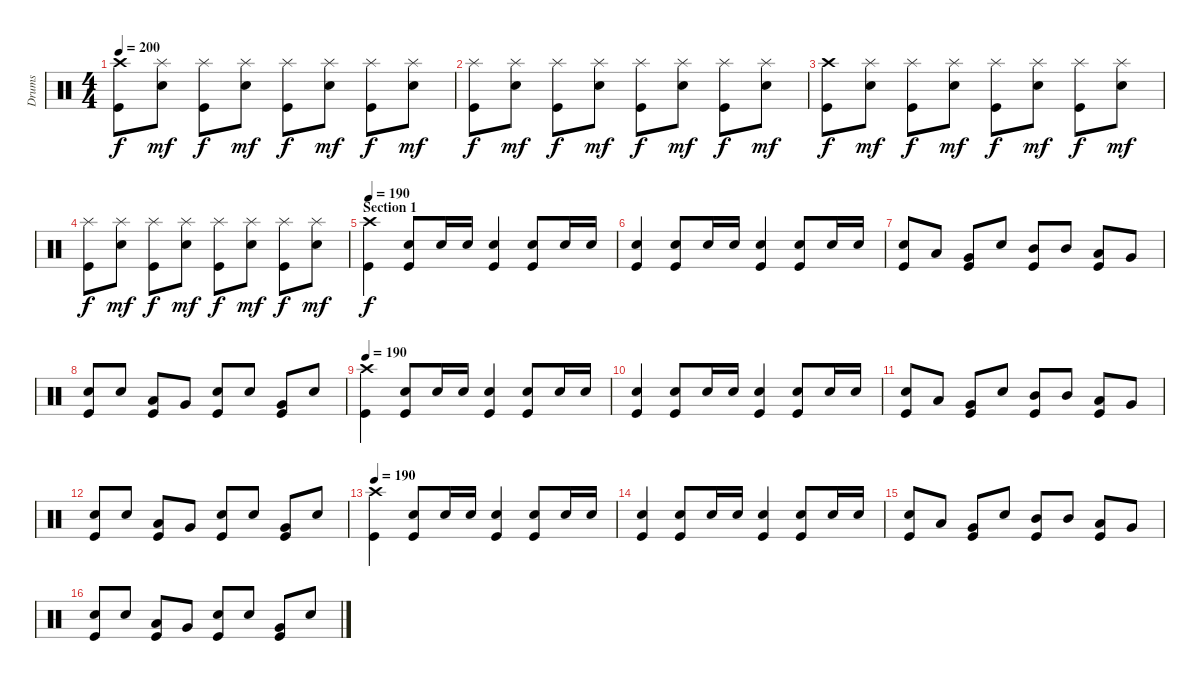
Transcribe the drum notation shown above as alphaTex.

\track ("Drums" "Drums") {instrument percussion}
\staff {score}
\articulation defaults
\ts (4 4)
\tempo 200
\clef neutral
\ks c
("Crash high (hit)" "Kick (hit)").8{dy f} ("Splash (hit)" "Electric Snare (hit)").8{dy mf} ("Splash (hit)" "Kick (hit)").8{dy f} ("Splash (hit)" "Electric Snare (hit)").8{dy mf} ("Splash (hit)" "Kick (hit)").8{dy f} ("Splash (hit)" "Electric Snare (hit)").8{dy mf} ("Splash (hit)" "Kick (hit)").8{dy f} ("Splash (hit)" "Electric Snare (hit)").8{dy mf} |
("Splash (hit)" "Kick (hit)").8{dy f} ("Splash (hit)" "Electric Snare (hit)").8{dy mf} ("Splash (hit)" "Kick (hit)").8{dy f} ("Splash (hit)" "Electric Snare (hit)").8{dy mf} ("Splash (hit)" "Kick (hit)").8{dy f} ("Splash (hit)" "Electric Snare (hit)").8{dy mf} ("Splash (hit)" "Kick (hit)").8{dy f} ("Splash (hit)" "Electric Snare (hit)").8{dy mf} |
("Crash high (hit)" "Kick (hit)").8{dy f} ("Splash (hit)" "Electric Snare (hit)").8{dy mf} ("Splash (hit)" "Kick (hit)").8{dy f} ("Splash (hit)" "Electric Snare (hit)").8{dy mf} ("Splash (hit)" "Kick (hit)").8{dy f} ("Splash (hit)" "Electric Snare (hit)").8{dy mf} ("Splash (hit)" "Kick (hit)").8{dy f} ("Splash (hit)" "Electric Snare (hit)").8{dy mf} |
("Splash (hit)" "Kick (hit)").8{dy f} ("Splash (hit)" "Electric Snare (hit)").8{dy mf} ("Splash (hit)" "Kick (hit)").8{dy f} ("Splash (hit)" "Electric Snare (hit)").8{dy mf} ("Splash (hit)" "Kick (hit)").8{dy f} ("Splash (hit)" "Electric Snare (hit)").8{dy mf} ("Splash (hit)" "Kick (hit)").8{dy f} ("Splash (hit)" "Electric Snare (hit)").8{dy mf} |
\section ("" "Section 1")
\tempo 190
("Crash high (hit)" "Kick (hit)").4{dy f} ("Electric Snare (hit)" "Kick (hit)").8 "Electric Snare (hit)".16 "Electric Snare (hit)".16 ("Electric Snare (hit)" "Kick (hit)").4 ("Electric Snare (hit)" "Kick (hit)").8 "Electric Snare (hit)".16 "Electric Snare (hit)".16 |
("Electric Snare (hit)" "Kick (hit)").4 ("Electric Snare (hit)" "Kick (hit)").8 "Electric Snare (hit)".16 "Electric Snare (hit)".16 ("Electric Snare (hit)" "Kick (hit)").4 ("Electric Snare (hit)" "Kick (hit)").8 "Electric Snare (hit)".16 "Electric Snare (hit)".16 |
("Electric Snare (hit)" "Kick (hit)").8 "Low Tom (hit)".8 ("Very Low Tom (hit)" "Kick (hit)").8 "Electric Snare (hit)".8 ("Mid Tom (hit)" "Kick (hit)").8 "Mid Tom (hit)".8 ("Low Tom (hit)" "Kick (hit)").8 "Very Low Tom (hit)".8 |
("Electric Snare (hit)" "Kick (hit)").8 "Electric Snare (hit)".8 ("Low Tom (hit)" "Kick (hit)").8 "Very Low Tom (hit)".8 ("Electric Snare (hit)" "Kick (hit)").8 "Electric Snare (hit)".8 ("Very Low Tom (hit)" "Kick (hit)").8 "Electric Snare (hit)".8 |
\tempo 190
("Crash high (hit)" "Kick (hit)").4 ("Electric Snare (hit)" "Kick (hit)").8 "Electric Snare (hit)".16 "Electric Snare (hit)".16 ("Electric Snare (hit)" "Kick (hit)").4 ("Electric Snare (hit)" "Kick (hit)").8 "Electric Snare (hit)".16 "Electric Snare (hit)".16 |
("Electric Snare (hit)" "Kick (hit)").4 ("Electric Snare (hit)" "Kick (hit)").8 "Electric Snare (hit)".16 "Electric Snare (hit)".16 ("Electric Snare (hit)" "Kick (hit)").4 ("Electric Snare (hit)" "Kick (hit)").8 "Electric Snare (hit)".16 "Electric Snare (hit)".16 |
("Electric Snare (hit)" "Kick (hit)").8 "Low Tom (hit)".8 ("Very Low Tom (hit)" "Kick (hit)").8 "Electric Snare (hit)".8 ("Mid Tom (hit)" "Kick (hit)").8 "Mid Tom (hit)".8 ("Low Tom (hit)" "Kick (hit)").8 "Very Low Tom (hit)".8 |
("Electric Snare (hit)" "Kick (hit)").8 "Electric Snare (hit)".8 ("Low Tom (hit)" "Kick (hit)").8 "Very Low Tom (hit)".8 ("Electric Snare (hit)" "Kick (hit)").8 "Electric Snare (hit)".8 ("Very Low Tom (hit)" "Kick (hit)").8 "Electric Snare (hit)".8 |
\tempo 190
("Crash high (hit)" "Kick (hit)").4 ("Electric Snare (hit)" "Kick (hit)").8 "Electric Snare (hit)".16 "Electric Snare (hit)".16 ("Electric Snare (hit)" "Kick (hit)").4 ("Electric Snare (hit)" "Kick (hit)").8 "Electric Snare (hit)".16 "Electric Snare (hit)".16 |
("Electric Snare (hit)" "Kick (hit)").4 ("Electric Snare (hit)" "Kick (hit)").8 "Electric Snare (hit)".16 "Electric Snare (hit)".16 ("Electric Snare (hit)" "Kick (hit)").4 ("Electric Snare (hit)" "Kick (hit)").8 "Electric Snare (hit)".16 "Electric Snare (hit)".16 |
("Electric Snare (hit)" "Kick (hit)").8 "Low Tom (hit)".8 ("Very Low Tom (hit)" "Kick (hit)").8 "Electric Snare (hit)".8 ("Mid Tom (hit)" "Kick (hit)").8 "Mid Tom (hit)".8 ("Low Tom (hit)" "Kick (hit)").8 "Very Low Tom (hit)".8 |
("Electric Snare (hit)" "Kick (hit)").8 "Electric Snare (hit)".8 ("Low Tom (hit)" "Kick (hit)").8 "Very Low Tom (hit)".8 ("Electric Snare (hit)" "Kick (hit)").8 "Electric Snare (hit)".8 ("Very Low Tom (hit)" "Kick (hit)").8 "Electric Snare (hit)".8
